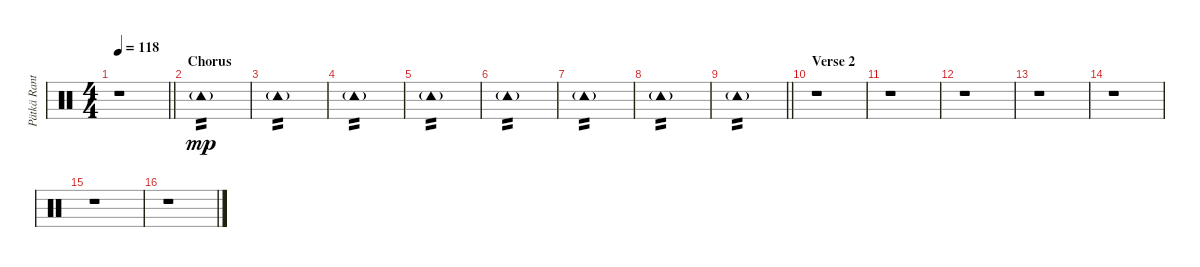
\track ("Pätkä Rantala (Drums)" "Pätkä Rant") {instrument percussion}
\staff {score}
\articulation defaults
\ts (4 4)
\tempo 118
\clef neutral
\barLineRight lightlight
\ks c
r.1{dy mp} |
\section ("" "Chorus")
"Tambourine (hit)"{g}.1{tp 2} |
"Tambourine (hit)"{g}.1{tp 2} |
"Tambourine (hit)"{g}.1{tp 2} |
"Tambourine (hit)"{g}.1{tp 2} |
"Tambourine (hit)"{g}.1{tp 2} |
"Tambourine (hit)"{g}.1{tp 2} |
"Tambourine (hit)"{g}.1{tp 2} |
\barLineRight lightlight "Tambourine (hit)"{g}.1{tp 2}
|
\section ("" "Verse 2")
r.1 |
r.1 |
r.1 |
r.1 |
r.1 |
r.1 |
r.1
